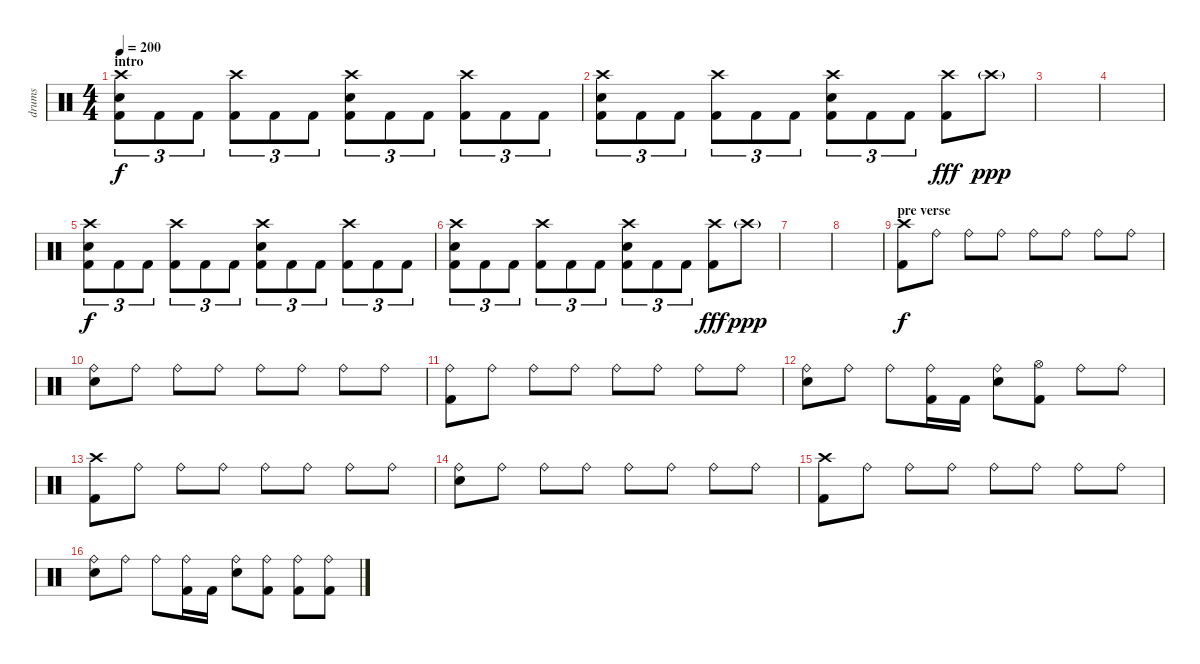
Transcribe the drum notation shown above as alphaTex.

\track ("drums" "drums") {instrument percussion}
\staff {score}
\articulation defaults
\ts (4 4)
\section ("" "intro")
\tempo 200
\clef neutral
\ks c
("Crash high (hit)" "Electric Snare (hit)" "Kick (hit) 2").8{tu (3 2) dy f} "Kick (hit) 2".8{tu (3 2)} "Kick (hit) 2".8{tu (3 2)} ("Crash high (hit)" "Kick (hit) 2").8{tu (3 2)} "Kick (hit) 2".8{tu (3 2)} "Kick (hit) 2".8{tu (3 2)} ("Crash high (hit)" "Electric Snare (hit)" "Kick (hit) 2").8{tu (3 2)} "Kick (hit) 2".8{tu (3 2)} "Kick (hit) 2".8{tu (3 2)} ("Crash high (hit)" "Kick (hit) 2").8{tu (3 2)} "Kick (hit) 2".8{tu (3 2)} "Kick (hit) 2".8{tu (3 2)} |
("Crash high (hit)" "Electric Snare (hit)" "Kick (hit) 2").8{tu (3 2)} "Kick (hit) 2".8{tu (3 2)} "Kick (hit) 2".8{tu (3 2)} ("Crash high (hit)" "Kick (hit) 2").8{tu (3 2)} "Kick (hit) 2".8{tu (3 2)} "Kick (hit) 2".8{tu (3 2)} ("Crash high (hit)" "Electric Snare (hit)" "Kick (hit) 2").8{tu (3 2)} "Kick (hit) 2".8{tu (3 2)} "Kick (hit) 2".8{tu (3 2)} ("Crash high (hit)"{pm} "Kick (hit) 2").8{dy fff} "Crash high (hit)"{g}.8{dy ppp} |
|
|
("Crash high (hit)" "Electric Snare (hit)" "Kick (hit) 2").8{tu (3 2) dy f} "Kick (hit) 2".8{tu (3 2)} "Kick (hit) 2".8{tu (3 2)} ("Crash high (hit)" "Kick (hit) 2").8{tu (3 2)} "Kick (hit) 2".8{tu (3 2)} "Kick (hit) 2".8{tu (3 2)} ("Crash high (hit)" "Electric Snare (hit)" "Kick (hit) 2").8{tu (3 2)} "Kick (hit) 2".8{tu (3 2)} "Kick (hit) 2".8{tu (3 2)} ("Crash high (hit)" "Kick (hit) 2").8{tu (3 2)} "Kick (hit) 2".8{tu (3 2)} "Kick (hit) 2".8{tu (3 2)} |
("Crash high (hit)" "Electric Snare (hit)" "Kick (hit) 2").8{tu (3 2)} "Kick (hit) 2".8{tu (3 2)} "Kick (hit) 2".8{tu (3 2)} ("Crash high (hit)" "Kick (hit) 2").8{tu (3 2)} "Kick (hit) 2".8{tu (3 2)} "Kick (hit) 2".8{tu (3 2)} ("Crash high (hit)" "Electric Snare (hit)" "Kick (hit) 2").8{tu (3 2)} "Kick (hit) 2".8{tu (3 2)} "Kick (hit) 2".8{tu (3 2)} ("Crash high (hit)"{pm} "Kick (hit) 2").8{dy fff} "Crash high (hit)"{g}.8{dy ppp} |
|
|
\section ("" "pre verse")
("Crash high (hit)" "Kick (hit) 2").8{dy f} "Ride (bell)".8 "Ride (bell)".8 "Ride (bell)".8 "Ride (bell)".8 "Ride (bell)".8 "Ride (bell)".8 "Ride (bell)".8 |
("Ride (bell)" "Electric Snare (hit)").8 "Ride (bell)".8 "Ride (bell)".8 "Ride (bell)".8 "Ride (bell)".8 "Ride (bell)".8 "Ride (bell)".8 "Ride (bell)".8 |
("Ride (bell)" "Kick (hit) 2").8 "Ride (bell)".8 "Ride (bell)".8 "Ride (bell)".8 "Ride (bell)".8 "Ride (bell)".8 "Ride (bell)".8 "Ride (bell)".8 |
("Ride (bell)" "Electric Snare (hit)").8 "Ride (bell)".8 "Ride (bell)".8 ("Ride (bell)" "Kick (hit) 2").16 "Kick (hit) 2".16 ("Ride (bell)" "Electric Snare (hit)").8 ("Hi-Hat (open)" "Kick (hit) 2").8 "Ride (bell)".8 "Ride (bell)".8 |
("Crash high (hit)" "Kick (hit) 2").8 "Ride (bell)".8 "Ride (bell)".8 "Ride (bell)".8 "Ride (bell)".8 "Ride (bell)".8 "Ride (bell)".8 "Ride (bell)".8 |
("Ride (bell)" "Electric Snare (hit)").8 "Ride (bell)".8 "Ride (bell)".8 "Ride (bell)".8 "Ride (bell)".8 "Ride (bell)".8 "Ride (bell)".8 "Ride (bell)".8 |
("Crash high (hit)" "Kick (hit) 2").8 "Ride (bell)".8 "Ride (bell)".8 "Ride (bell)".8 "Ride (bell)".8 "Ride (bell)".8 "Ride (bell)".8 "Ride (bell)".8 |
("Ride (bell)" "Electric Snare (hit)").8 "Ride (bell)".8 "Ride (bell)".8 ("Ride (bell)" "Kick (hit) 2").16 "Kick (hit) 2".16 ("Ride (bell)" "Electric Snare (hit)").8 ("Ride (bell)" "Kick (hit) 2").8 ("Ride (bell)" "Kick (hit) 2").8 ("Ride (bell)" "Kick (hit) 2").8
